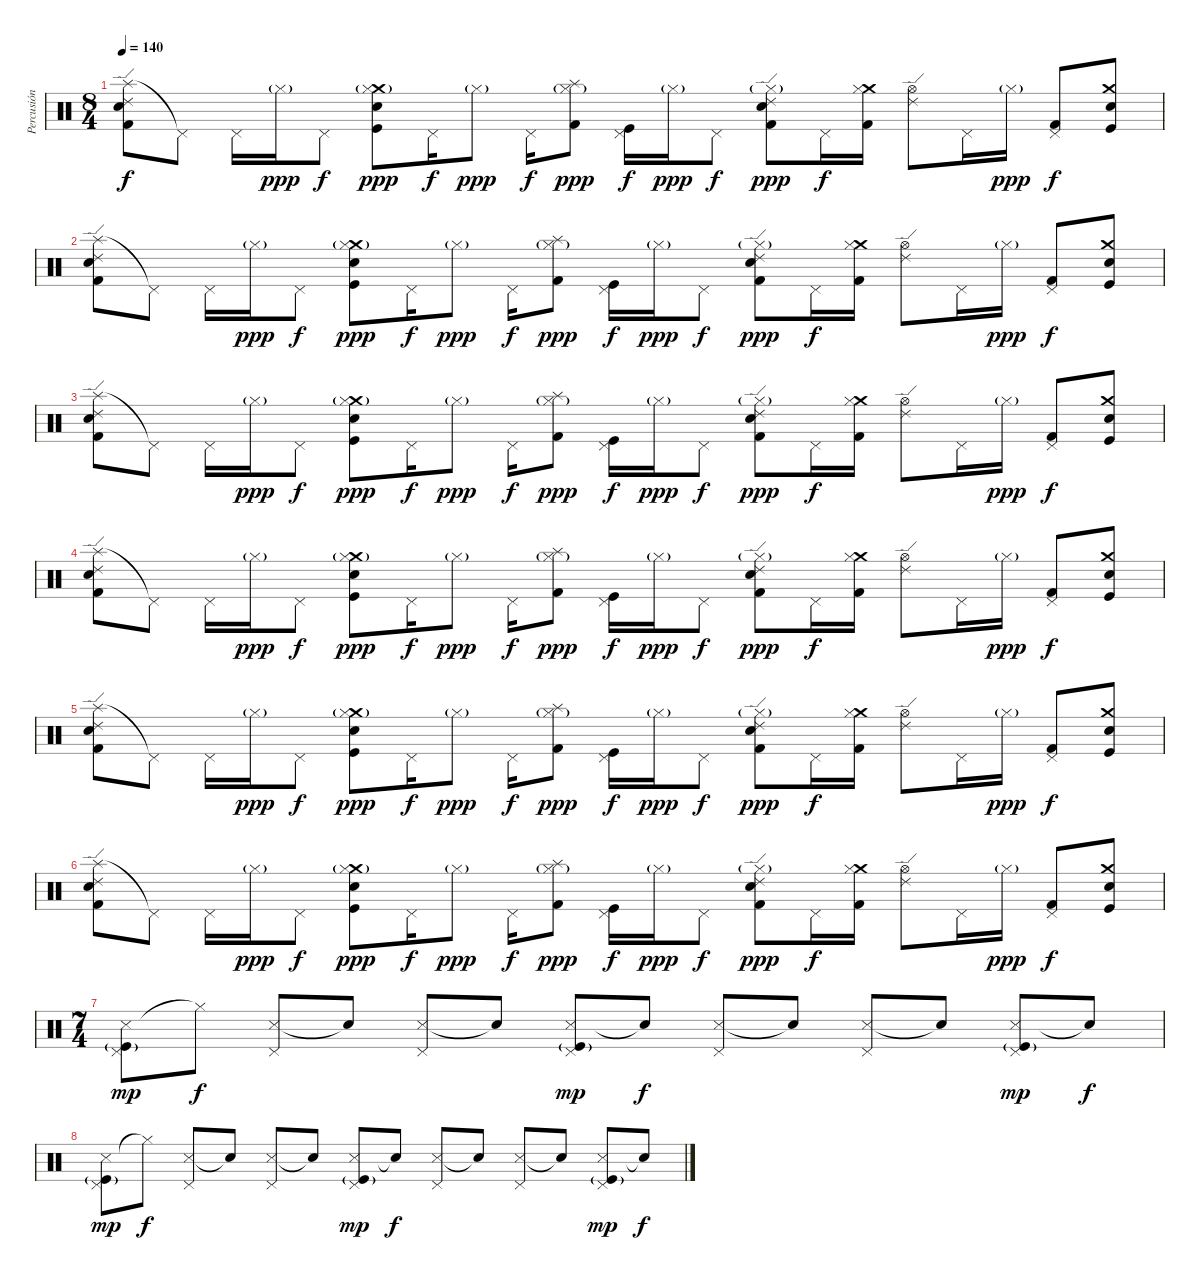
\track ("Percusión" "Percusión") {instrument percussion}
\staff {score}
\articulation defaults
\ts (8 4)
\tempo 140
\clef neutral
\ks c
("Splash (hit)" "Ride (edge) 2" "Electric Snare (hit)" "Kick (hit) 2").8{dy f} "Pedal Hi-Hat (hit)"{t}.8 "Pedal Hi-Hat (hit)".16 "Hi-Hat (closed)"{g}.16{dy ppp} "Pedal Hi-Hat (hit)".8{dy f} ("Crash medium (hit)" "Snare (hit) 2" "Hi-Hat (closed)"{g} "Kick (hit)").8{dy ppp} "Pedal Hi-Hat (hit)".16{dy f} "Hi-Hat (closed)"{g}.8{dy ppp} "Pedal Hi-Hat (hit)".16{dy f} ("Splash (hit)" "Hi-Hat (closed)"{g} "Kick (hit) 2").8{dy ppp} ("Pedal Hi-Hat (hit)" "Kick (hit)").16{dy f} "Hi-Hat (closed)"{g}.16{dy ppp} "Pedal Hi-Hat (hit)".8{dy f} ("Ride (edge) 2" "Electric Snare (hit)" "Hi-Hat (closed)"{g} "Kick (hit) 2").8{dy ppp} "Pedal Hi-Hat (hit)".16{dy f} ("Crash medium (hit)" "Hi-Hat (closed)" "Kick (hit) 2").16 ("Ride (edge) 2" "Hi-Hat (open)").8 "Pedal Hi-Hat (hit)".16 "Hi-Hat (closed)"{g}.16{dy ppp} ("Pedal Hi-Hat (hit)" "Kick (hit) 2").8{dy f} ("Crash medium (hit)" "Electric Snare (hit)" "Kick (hit)").8 |
("Splash (hit)" "Ride (edge) 2" "Electric Snare (hit)" "Kick (hit) 2").8 "Pedal Hi-Hat (hit)"{t}.8 "Pedal Hi-Hat (hit)".16 "Hi-Hat (closed)"{g}.16{dy ppp} "Pedal Hi-Hat (hit)".8{dy f} ("Crash medium (hit)" "Snare (hit) 2" "Hi-Hat (closed)"{g} "Kick (hit)").8{dy ppp} "Pedal Hi-Hat (hit)".16{dy f} "Hi-Hat (closed)"{g}.8{dy ppp} "Pedal Hi-Hat (hit)".16{dy f} ("Splash (hit)" "Hi-Hat (closed)"{g} "Kick (hit) 2").8{dy ppp} ("Pedal Hi-Hat (hit)" "Kick (hit)").16{dy f} "Hi-Hat (closed)"{g}.16{dy ppp} "Pedal Hi-Hat (hit)".8{dy f} ("Ride (edge) 2" "Electric Snare (hit)" "Hi-Hat (closed)"{g} "Kick (hit) 2").8{dy ppp} "Pedal Hi-Hat (hit)".16{dy f} ("Crash medium (hit)" "Hi-Hat (closed)" "Kick (hit) 2").16 ("Ride (edge) 2" "Hi-Hat (open)").8 "Pedal Hi-Hat (hit)".16 "Hi-Hat (closed)"{g}.16{dy ppp} ("Pedal Hi-Hat (hit)" "Kick (hit) 2").8{dy f} ("Crash medium (hit)" "Electric Snare (hit)" "Kick (hit)").8 |
("Splash (hit)" "Ride (edge) 2" "Electric Snare (hit)" "Kick (hit) 2").8 "Pedal Hi-Hat (hit)"{t}.8 "Pedal Hi-Hat (hit)".16 "Hi-Hat (closed)"{g}.16{dy ppp} "Pedal Hi-Hat (hit)".8{dy f} ("Crash medium (hit)" "Snare (hit) 2" "Hi-Hat (closed)"{g} "Kick (hit)").8{dy ppp} "Pedal Hi-Hat (hit)".16{dy f} "Hi-Hat (closed)"{g}.8{dy ppp} "Pedal Hi-Hat (hit)".16{dy f} ("Splash (hit)" "Hi-Hat (closed)"{g} "Kick (hit) 2").8{dy ppp} ("Pedal Hi-Hat (hit)" "Kick (hit)").16{dy f} "Hi-Hat (closed)"{g}.16{dy ppp} "Pedal Hi-Hat (hit)".8{dy f} ("Ride (edge) 2" "Electric Snare (hit)" "Hi-Hat (closed)"{g} "Kick (hit) 2").8{dy ppp} "Pedal Hi-Hat (hit)".16{dy f} ("Crash medium (hit)" "Hi-Hat (closed)" "Kick (hit) 2").16 ("Ride (edge) 2" "Hi-Hat (open)").8 "Pedal Hi-Hat (hit)".16 "Hi-Hat (closed)"{g}.16{dy ppp} ("Pedal Hi-Hat (hit)" "Kick (hit) 2").8{dy f} ("Crash medium (hit)" "Electric Snare (hit)" "Kick (hit)").8 |
("Splash (hit)" "Ride (edge) 2" "Electric Snare (hit)" "Kick (hit) 2").8 "Pedal Hi-Hat (hit)"{t}.8 "Pedal Hi-Hat (hit)".16 "Hi-Hat (closed)"{g}.16{dy ppp} "Pedal Hi-Hat (hit)".8{dy f} ("Crash medium (hit)" "Snare (hit) 2" "Hi-Hat (closed)"{g} "Kick (hit)").8{dy ppp} "Pedal Hi-Hat (hit)".16{dy f} "Hi-Hat (closed)"{g}.8{dy ppp} "Pedal Hi-Hat (hit)".16{dy f} ("Splash (hit)" "Hi-Hat (closed)"{g} "Kick (hit) 2").8{dy ppp} ("Pedal Hi-Hat (hit)" "Kick (hit)").16{dy f} "Hi-Hat (closed)"{g}.16{dy ppp} "Pedal Hi-Hat (hit)".8{dy f} ("Ride (edge) 2" "Electric Snare (hit)" "Hi-Hat (closed)"{g} "Kick (hit) 2").8{dy ppp} "Pedal Hi-Hat (hit)".16{dy f} ("Crash medium (hit)" "Hi-Hat (closed)" "Kick (hit) 2").16 ("Ride (edge) 2" "Hi-Hat (open)").8 "Pedal Hi-Hat (hit)".16 "Hi-Hat (closed)"{g}.16{dy ppp} ("Pedal Hi-Hat (hit)" "Kick (hit) 2").8{dy f} ("Crash medium (hit)" "Electric Snare (hit)" "Kick (hit)").8 |
("Splash (hit)" "Ride (edge) 2" "Electric Snare (hit)" "Kick (hit) 2").8 "Pedal Hi-Hat (hit)"{t}.8 "Pedal Hi-Hat (hit)".16 "Hi-Hat (closed)"{g}.16{dy ppp} "Pedal Hi-Hat (hit)".8{dy f} ("Crash medium (hit)" "Snare (hit) 2" "Hi-Hat (closed)"{g} "Kick (hit)").8{dy ppp} "Pedal Hi-Hat (hit)".16{dy f} "Hi-Hat (closed)"{g}.8{dy ppp} "Pedal Hi-Hat (hit)".16{dy f} ("Splash (hit)" "Hi-Hat (closed)"{g} "Kick (hit) 2").8{dy ppp} ("Pedal Hi-Hat (hit)" "Kick (hit)").16{dy f} "Hi-Hat (closed)"{g}.16{dy ppp} "Pedal Hi-Hat (hit)".8{dy f} ("Ride (edge) 2" "Electric Snare (hit)" "Hi-Hat (closed)"{g} "Kick (hit) 2").8{dy ppp} "Pedal Hi-Hat (hit)".16{dy f} ("Crash medium (hit)" "Hi-Hat (closed)" "Kick (hit) 2").16 ("Ride (edge) 2" "Hi-Hat (open)").8 "Pedal Hi-Hat (hit)".16 "Hi-Hat (closed)"{g}.16{dy ppp} ("Pedal Hi-Hat (hit)" "Kick (hit) 2").8{dy f} ("Crash medium (hit)" "Electric Snare (hit)" "Kick (hit)").8 |
("Splash (hit)" "Ride (edge) 2" "Electric Snare (hit)" "Kick (hit) 2").8 "Pedal Hi-Hat (hit)"{t}.8 "Pedal Hi-Hat (hit)".16 "Hi-Hat (closed)"{g}.16{dy ppp} "Pedal Hi-Hat (hit)".8{dy f} ("Crash medium (hit)" "Snare (hit) 2" "Hi-Hat (closed)"{g} "Kick (hit)").8{dy ppp} "Pedal Hi-Hat (hit)".16{dy f} "Hi-Hat (closed)"{g}.8{dy ppp} "Pedal Hi-Hat (hit)".16{dy f} ("Splash (hit)" "Hi-Hat (closed)"{g} "Kick (hit) 2").8{dy ppp} ("Pedal Hi-Hat (hit)" "Kick (hit)").16{dy f} "Hi-Hat (closed)"{g}.16{dy ppp} "Pedal Hi-Hat (hit)".8{dy f} ("Ride (edge) 2" "Electric Snare (hit)" "Hi-Hat (closed)"{g} "Kick (hit) 2").8{dy ppp} "Pedal Hi-Hat (hit)".16{dy f} ("Crash medium (hit)" "Hi-Hat (closed)" "Kick (hit) 2").16 ("Ride (edge) 2" "Hi-Hat (open)").8 "Pedal Hi-Hat (hit)".16 "Hi-Hat (closed)"{g}.16{dy ppp} ("Pedal Hi-Hat (hit)" "Kick (hit) 2").8{dy f} ("Crash medium (hit)" "Electric Snare (hit)" "Kick (hit)").8 |
\ts (7 4)
("Metronome (hit)" "Pedal Hi-Hat (hit)" "Kick (hit)"{g}).8{dy mp} "Hi-Hat (closed)"{t}.8{dy f} ("Metronome (hit)" "Pedal Hi-Hat (hit)").8 "Snare (hit)"{t}.8 ("Metronome (hit)" "Pedal Hi-Hat (hit)").8 "Snare (hit)"{t}.8 ("Metronome (hit)" "Pedal Hi-Hat (hit)" "Kick (hit)"{g}).8{dy mp} "Snare (hit)"{t}.8{dy f} ("Metronome (hit)" "Pedal Hi-Hat (hit)").8 "Snare (hit)"{t}.8 ("Metronome (hit)" "Pedal Hi-Hat (hit)").8 "Snare (hit)"{t}.8 ("Metronome (hit)" "Pedal Hi-Hat (hit)" "Kick (hit)"{g}).8{dy mp} "Snare (hit)"{t}.8{dy f} |
("Metronome (hit)" "Pedal Hi-Hat (hit)" "Kick (hit)"{g}).8{dy mp} "Hi-Hat (closed)"{t}.8{dy f} ("Metronome (hit)" "Pedal Hi-Hat (hit)").8 "Snare (hit)"{t}.8 ("Metronome (hit)" "Pedal Hi-Hat (hit)").8 "Snare (hit)"{t}.8 ("Metronome (hit)" "Pedal Hi-Hat (hit)" "Kick (hit)"{g}).8{dy mp} "Snare (hit)"{t}.8{dy f} ("Metronome (hit)" "Pedal Hi-Hat (hit)").8 "Snare (hit)"{t}.8 ("Metronome (hit)" "Pedal Hi-Hat (hit)").8 "Snare (hit)"{t}.8 ("Metronome (hit)" "Pedal Hi-Hat (hit)" "Kick (hit)"{g}).8{dy mp} "Snare (hit)"{t}.8{dy f}
